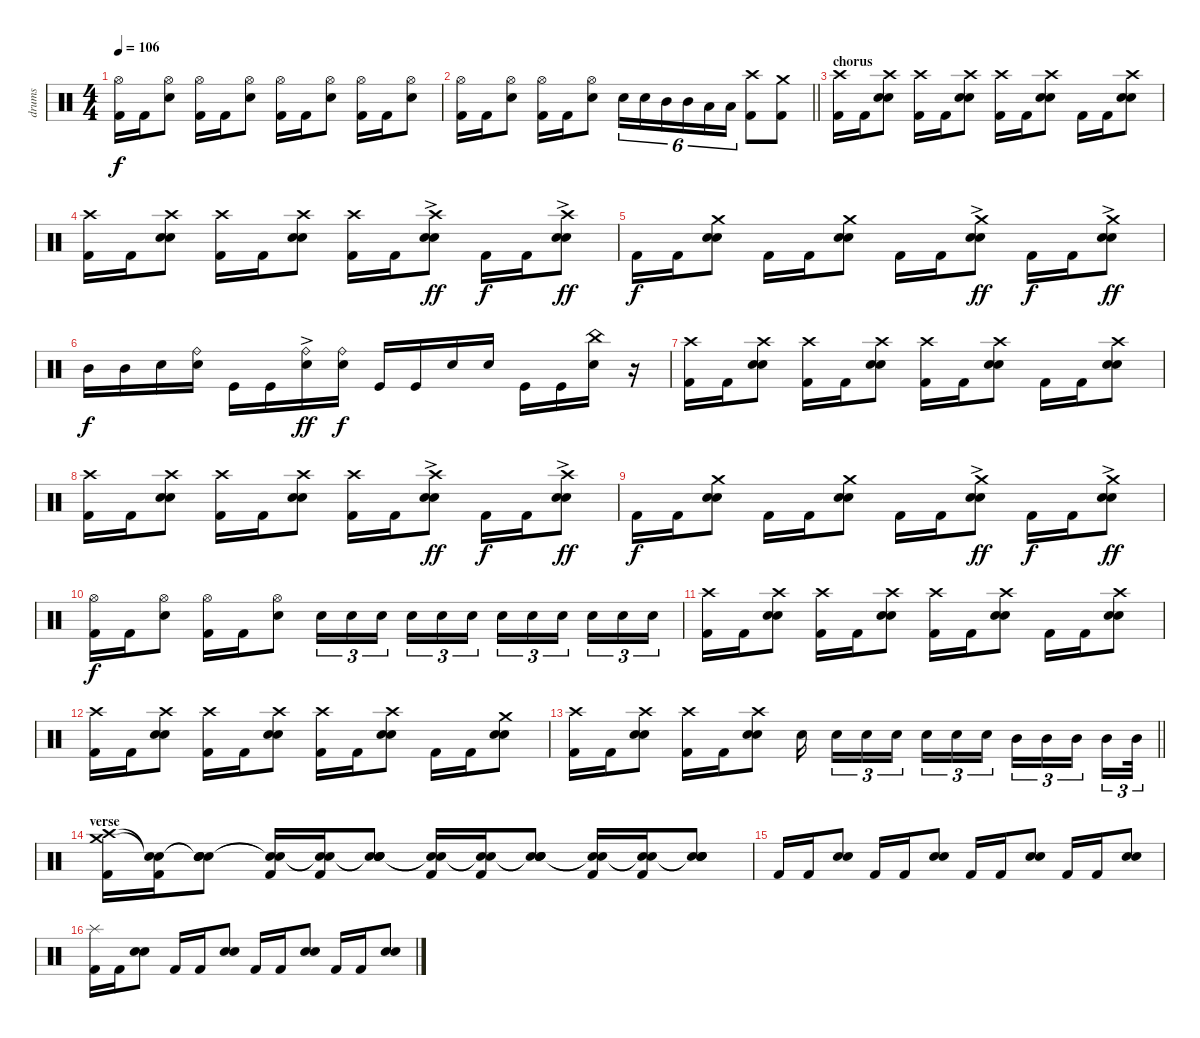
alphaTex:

\track ("drums" "drums") {instrument percussion}
\staff {score}
\articulation defaults
\ts (4 4)
\tempo 106
\clef neutral
\ks c
("Hi-Hat (open)" "Kick (hit) 2").16{dy f} "Kick (hit) 2".16 ("Hi-Hat (open)" "Snare (hit) 2").8 ("Hi-Hat (open)" "Kick (hit) 2").16 "Kick (hit) 2".16 ("Hi-Hat (open)" "Snare (hit) 2").8 ("Hi-Hat (open)" "Kick (hit) 2").16 "Kick (hit) 2".16 ("Hi-Hat (open)" "Snare (hit) 2").8 ("Hi-Hat (open)" "Kick (hit) 2").16 "Kick (hit) 2".16 ("Hi-Hat (open)" "Snare (hit) 2").8 |
\barLineRight lightlight
("Hi-Hat (open)" "Kick (hit) 2").16 "Kick (hit) 2".16 ("Hi-Hat (open)" "Snare (hit) 2").8 ("Hi-Hat (open)" "Kick (hit) 2").16 "Kick (hit) 2".16 ("Hi-Hat (open)" "Snare (hit) 2").8 "Snare (hit) 2".16{tu (6 4)} "Snare (hit) 2".16{tu (6 4)} "Mid Tom (hit)".16{tu (6 4)} "Mid Tom (hit)".16{tu (6 4)} "Low Tom (hit)".16{tu (6 4)} "Low Tom (hit)".16{tu (6 4)} ("Crash high (hit)" "Kick (hit) 2").8 ("Crash medium (hit)" "Kick (hit) 2").8 |
\section ("" "chorus")
("Crash high (hit)" "Kick (hit) 2").16 "Kick (hit) 2".16 ("Crash high (hit)" "Snare (hit) 2" "Snare (hit) 2").8 ("Crash high (hit)" "Kick (hit) 2").16 "Kick (hit) 2".16 ("Crash high (hit)" "Snare (hit) 2" "Snare (hit) 2").8 ("Crash high (hit)" "Kick (hit) 2").16 "Kick (hit) 2".16 ("Crash high (hit)" "Snare (hit) 2" "Snare (hit) 2").8 "Kick (hit) 2".16 "Kick (hit) 2".16 ("Crash high (hit)" "Snare (hit) 2" "Snare (hit) 2").8 |
("Crash high (hit)" "Kick (hit) 2").16 "Kick (hit) 2".16 ("Crash high (hit)" "Snare (hit) 2" "Snare (hit) 2").8 ("Crash high (hit)" "Kick (hit) 2").16 "Kick (hit) 2".16 ("Crash high (hit)" "Snare (hit) 2" "Snare (hit) 2").8 ("Crash high (hit)" "Kick (hit) 2").16 "Kick (hit) 2".16 ("Crash high (hit)"{ac} "Snare (hit) 2" "Snare (hit) 2").8{dy ff} "Kick (hit) 2".16{dy f} "Kick (hit) 2".16 ("Crash high (hit)"{ac} "Snare (hit) 2" "Snare (hit) 2").8{dy ff} |
"Kick (hit) 2".16{dy f} "Kick (hit) 2".16 ("Crash medium (hit)" "Snare (hit) 2" "Snare (hit) 2").8 "Kick (hit) 2".16 "Kick (hit) 2".16 ("Crash medium (hit)" "Snare (hit) 2" "Snare (hit) 2").8 "Kick (hit) 2".16 "Kick (hit) 2".16 ("Crash medium (hit)"{ac} "Snare (hit) 2" "Snare (hit) 2").8{dy ff} "Kick (hit) 2".16{dy f} "Kick (hit) 2".16 ("Crash medium (hit)"{ac} "Snare (hit) 2" "Snare (hit) 2").8{dy ff} |
"Mid Tom (hit)".16{dy f} "Mid Tom (hit)".16 "Snare (hit) 2".16 ("Ride (bell)" "Snare (hit) 2").16 "Kick (hit)".16 "Kick (hit)".16 ("Ride (bell)"{ac} "Snare (hit) 2").16{dy ff} ("Ride (bell)" "Snare (hit) 2").16{dy f} "Kick (hit)".16 "Kick (hit)".16 "Snare (hit) 2".16 "Snare (hit) 2".16 "Kick (hit)".16 "Kick (hit)".16 ("China (hit)" "Snare (hit) 2").16 r.16 |
("Crash high (hit)" "Kick (hit) 2").16 "Kick (hit) 2".16 ("Crash high (hit)" "Snare (hit) 2" "Snare (hit) 2").8 ("Crash high (hit)" "Kick (hit) 2").16 "Kick (hit) 2".16 ("Crash high (hit)" "Snare (hit) 2" "Snare (hit) 2").8 ("Crash high (hit)" "Kick (hit) 2").16 "Kick (hit) 2".16 ("Crash high (hit)" "Snare (hit) 2" "Snare (hit) 2").8 "Kick (hit) 2".16 "Kick (hit) 2".16 ("Crash high (hit)" "Snare (hit) 2" "Snare (hit) 2").8 |
("Crash high (hit)" "Kick (hit) 2").16 "Kick (hit) 2".16 ("Crash high (hit)" "Snare (hit) 2" "Snare (hit) 2").8 ("Crash high (hit)" "Kick (hit) 2").16 "Kick (hit) 2".16 ("Crash high (hit)" "Snare (hit) 2" "Snare (hit) 2").8 ("Crash high (hit)" "Kick (hit) 2").16 "Kick (hit) 2".16 ("Crash high (hit)"{ac} "Snare (hit) 2" "Snare (hit) 2").8{dy ff} "Kick (hit) 2".16{dy f} "Kick (hit) 2".16 ("Crash high (hit)"{ac} "Snare (hit) 2" "Snare (hit) 2").8{dy ff} |
"Kick (hit) 2".16{dy f} "Kick (hit) 2".16 ("Crash medium (hit)" "Snare (hit) 2" "Snare (hit) 2").8 "Kick (hit) 2".16 "Kick (hit) 2".16 ("Crash medium (hit)" "Snare (hit) 2" "Snare (hit) 2").8 "Kick (hit) 2".16 "Kick (hit) 2".16 ("Crash medium (hit)"{ac} "Snare (hit) 2" "Snare (hit) 2").8{dy ff} "Kick (hit) 2".16{dy f} "Kick (hit) 2".16 ("Crash medium (hit)"{ac} "Snare (hit) 2" "Snare (hit) 2").8{dy ff} |
("Hi-Hat (open)" "Kick (hit) 2").16{dy f} "Kick (hit) 2".16 ("Hi-Hat (open)" "Snare (hit) 2").8 ("Hi-Hat (open)" "Kick (hit) 2").16 "Kick (hit) 2".16 ("Hi-Hat (open)" "Snare (hit) 2").8 "Snare (hit) 2".16{tu (3 2)} "Snare (hit) 2".16{tu (3 2)} "Snare (hit) 2".16{tu (3 2)} "Snare (hit) 2".16{tu (3 2)} "Snare (hit) 2".16{tu (3 2)} "Snare (hit) 2".16{tu (3 2)} "Snare (hit) 2".16{tu (3 2)} "Snare (hit) 2".16{tu (3 2)} "Snare (hit) 2".16{tu (3 2)} "Snare (hit) 2".16{tu (3 2)} "Snare (hit) 2".16{tu (3 2)} "Snare (hit) 2".16{tu (3 2)} |
("Crash high (hit)" "Kick (hit) 2").16 "Kick (hit) 2".16 ("Crash high (hit)" "Snare (hit) 2" "Snare (hit) 2").8 ("Crash high (hit)" "Kick (hit) 2").16 "Kick (hit) 2".16 ("Crash high (hit)" "Snare (hit) 2" "Snare (hit) 2").8 ("Crash high (hit)" "Kick (hit) 2").16 "Kick (hit) 2".16 ("Crash high (hit)" "Snare (hit) 2" "Snare (hit) 2").8 "Kick (hit) 2".16 "Kick (hit) 2".16 ("Crash high (hit)" "Snare (hit) 2" "Snare (hit) 2").8 |
("Crash high (hit)" "Kick (hit) 2").16 "Kick (hit) 2".16 ("Crash high (hit)" "Snare (hit) 2" "Snare (hit) 2").8 ("Crash high (hit)" "Kick (hit) 2").16 "Kick (hit) 2".16 ("Crash high (hit)" "Snare (hit) 2" "Snare (hit) 2").8 ("Crash high (hit)" "Kick (hit) 2").16 "Kick (hit) 2".16 ("Crash high (hit)" "Snare (hit) 2" "Snare (hit) 2").8 "Kick (hit) 2".16 "Kick (hit) 2".16 ("Crash medium (hit)" "Snare (hit) 2" "Snare (hit) 2").8 |
\barLineRight lightlight
("Crash high (hit)" "Kick (hit) 2").16 "Kick (hit) 2".16 ("Crash high (hit)" "Snare (hit) 2" "Snare (hit) 2").8 ("Crash high (hit)" "Kick (hit) 2").16 "Kick (hit) 2".16 ("Crash high (hit)" "Snare (hit) 2" "Snare (hit) 2").8 "Snare (hit) 2".16 "Snare (hit) 2".16{tu (3 2)} "Snare (hit) 2".16{tu (3 2)} "Snare (hit) 2".16{tu (3 2)} "Snare (hit) 2".16{tu (3 2)} "Snare (hit) 2".16{tu (3 2)} "Snare (hit) 2".16{tu (3 2)} "Mid Tom (hit)".16{tu (3 2)} "Mid Tom (hit)".16{tu (3 2)} "Mid Tom (hit)".16{tu (3 2)} "Mid Tom (hit)".16{tu (3 2)} "Mid Tom (hit)".32{tu (3 2)} |
\section ("" "verse")
("Crash medium (hit)" "Crash high (hit)" "Kick (hit) 2").16 ("Snare (hit)"{t} "Snare (hit)"{t} "Kick (hit) 2").16 ("Snare (hit)"{t} "Snare (hit)"{t} "Snare (hit) 2" "Snare (hit) 2").8 ("Snare (hit)"{t} "Snare (hit)"{t} "Kick (hit) 2").16 ("Snare (hit)"{t} "Snare (hit)"{t} "Kick (hit) 2").16 ("Snare (hit)"{t} "Snare (hit)"{t} "Snare (hit) 2" "Snare (hit) 2").8 ("Snare (hit)"{t} "Snare (hit)"{t} "Kick (hit) 2").16 ("Snare (hit)"{t} "Snare (hit)"{t} "Kick (hit) 2").16 ("Snare (hit)"{t} "Snare (hit)"{t} "Snare (hit) 2" "Snare (hit) 2").8 ("Snare (hit)"{t} "Snare (hit)"{t} "Kick (hit) 2").16 ("Snare (hit)"{t} "Snare (hit)"{t} "Kick (hit) 2").16 ("Snare (hit)"{t} "Snare (hit)"{t} "Snare (hit) 2" "Snare (hit) 2").8 |
"Kick (hit) 2".16 "Kick (hit) 2".16 ("Snare (hit) 2" "Snare (hit) 2").8 "Kick (hit) 2".16 "Kick (hit) 2".16 ("Snare (hit) 2" "Snare (hit) 2").8 "Kick (hit) 2".16 "Kick (hit) 2".16 ("Snare (hit) 2" "Snare (hit) 2").8 "Kick (hit) 2".16 "Kick (hit) 2".16 ("Snare (hit) 2" "Snare (hit) 2").8 |
("Splash (hit)" "Kick (hit) 2").16 "Kick (hit) 2".16 ("Snare (hit) 2" "Snare (hit) 2").8 "Kick (hit) 2".16 "Kick (hit) 2".16 ("Snare (hit) 2" "Snare (hit) 2").8 "Kick (hit) 2".16 "Kick (hit) 2".16 ("Snare (hit) 2" "Snare (hit) 2").8 "Kick (hit) 2".16 "Kick (hit) 2".16 ("Snare (hit) 2" "Snare (hit) 2").8
